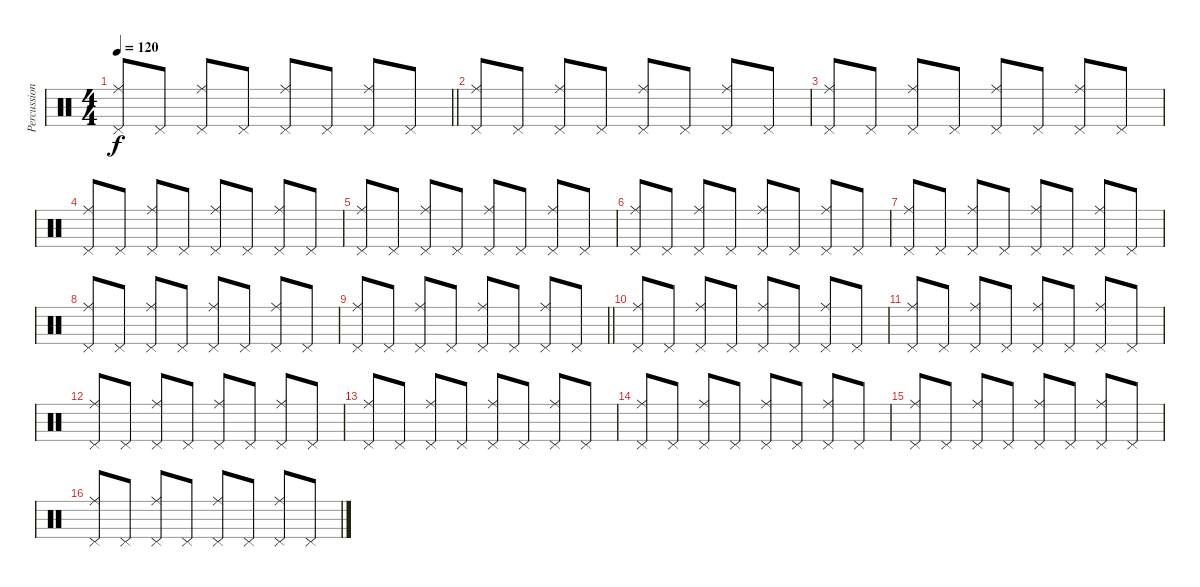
\track ("Percussion" "Percussion") {instrument percussion}
\staff {score}
\articulation defaults
\ts (4 4)
\tempo 120
\clef neutral
\barLineRight lightlight
\ks c
("Pedal Hi-Hat (hit)" "Ride (middle)").8{dy f} "Pedal Hi-Hat (hit)".8 ("Pedal Hi-Hat (hit)" "Ride (middle)").8 "Pedal Hi-Hat (hit)".8 ("Pedal Hi-Hat (hit)" "Ride (middle)").8 "Pedal Hi-Hat (hit)".8 ("Pedal Hi-Hat (hit)" "Ride (middle)").8 "Pedal Hi-Hat (hit)".8 |
("Pedal Hi-Hat (hit)" "Ride (middle)").8 "Pedal Hi-Hat (hit)".8 ("Pedal Hi-Hat (hit)" "Ride (middle)").8 "Pedal Hi-Hat (hit)".8 ("Pedal Hi-Hat (hit)" "Ride (middle)").8 "Pedal Hi-Hat (hit)".8 ("Pedal Hi-Hat (hit)" "Ride (middle)").8 "Pedal Hi-Hat (hit)".8 |
("Pedal Hi-Hat (hit)" "Ride (middle)").8 "Pedal Hi-Hat (hit)".8 ("Pedal Hi-Hat (hit)" "Ride (middle)").8 "Pedal Hi-Hat (hit)".8 ("Pedal Hi-Hat (hit)" "Ride (middle)").8 "Pedal Hi-Hat (hit)".8 ("Pedal Hi-Hat (hit)" "Ride (middle)").8 "Pedal Hi-Hat (hit)".8 |
("Pedal Hi-Hat (hit)" "Ride (middle)").8 "Pedal Hi-Hat (hit)".8 ("Pedal Hi-Hat (hit)" "Ride (middle)").8 "Pedal Hi-Hat (hit)".8 ("Pedal Hi-Hat (hit)" "Ride (middle)").8 "Pedal Hi-Hat (hit)".8 ("Pedal Hi-Hat (hit)" "Ride (middle)").8 "Pedal Hi-Hat (hit)".8 |
("Pedal Hi-Hat (hit)" "Ride (middle)").8 "Pedal Hi-Hat (hit)".8 ("Pedal Hi-Hat (hit)" "Ride (middle)").8 "Pedal Hi-Hat (hit)".8 ("Pedal Hi-Hat (hit)" "Ride (middle)").8 "Pedal Hi-Hat (hit)".8 ("Pedal Hi-Hat (hit)" "Ride (middle)").8 "Pedal Hi-Hat (hit)".8 |
("Pedal Hi-Hat (hit)" "Ride (middle)").8 "Pedal Hi-Hat (hit)".8 ("Pedal Hi-Hat (hit)" "Ride (middle)").8 "Pedal Hi-Hat (hit)".8 ("Pedal Hi-Hat (hit)" "Ride (middle)").8 "Pedal Hi-Hat (hit)".8 ("Pedal Hi-Hat (hit)" "Ride (middle)").8 "Pedal Hi-Hat (hit)".8 |
("Pedal Hi-Hat (hit)" "Ride (middle)").8 "Pedal Hi-Hat (hit)".8 ("Pedal Hi-Hat (hit)" "Ride (middle)").8 "Pedal Hi-Hat (hit)".8 ("Pedal Hi-Hat (hit)" "Ride (middle)").8 "Pedal Hi-Hat (hit)".8 ("Pedal Hi-Hat (hit)" "Ride (middle)").8 "Pedal Hi-Hat (hit)".8 |
("Pedal Hi-Hat (hit)" "Ride (middle)").8 "Pedal Hi-Hat (hit)".8 ("Pedal Hi-Hat (hit)" "Ride (middle)").8 "Pedal Hi-Hat (hit)".8 ("Pedal Hi-Hat (hit)" "Ride (middle)").8 "Pedal Hi-Hat (hit)".8 ("Pedal Hi-Hat (hit)" "Ride (middle)").8 "Pedal Hi-Hat (hit)".8 |
\barLineRight lightlight
("Pedal Hi-Hat (hit)" "Ride (middle)").8 "Pedal Hi-Hat (hit)".8 ("Pedal Hi-Hat (hit)" "Ride (middle)").8 "Pedal Hi-Hat (hit)".8 ("Pedal Hi-Hat (hit)" "Ride (middle)").8 "Pedal Hi-Hat (hit)".8 ("Pedal Hi-Hat (hit)" "Ride (middle)").8 "Pedal Hi-Hat (hit)".8 |
("Pedal Hi-Hat (hit)" "Ride (middle)").8 "Pedal Hi-Hat (hit)".8 ("Pedal Hi-Hat (hit)" "Ride (middle)").8 "Pedal Hi-Hat (hit)".8 ("Pedal Hi-Hat (hit)" "Ride (middle)").8 "Pedal Hi-Hat (hit)".8 ("Pedal Hi-Hat (hit)" "Ride (middle)").8 "Pedal Hi-Hat (hit)".8 |
("Pedal Hi-Hat (hit)" "Ride (middle)").8 "Pedal Hi-Hat (hit)".8 ("Pedal Hi-Hat (hit)" "Ride (middle)").8 "Pedal Hi-Hat (hit)".8 ("Pedal Hi-Hat (hit)" "Ride (middle)").8 "Pedal Hi-Hat (hit)".8 ("Pedal Hi-Hat (hit)" "Ride (middle)").8 "Pedal Hi-Hat (hit)".8 |
("Pedal Hi-Hat (hit)" "Ride (middle)").8 "Pedal Hi-Hat (hit)".8 ("Pedal Hi-Hat (hit)" "Ride (middle)").8 "Pedal Hi-Hat (hit)".8 ("Pedal Hi-Hat (hit)" "Ride (middle)").8 "Pedal Hi-Hat (hit)".8 ("Pedal Hi-Hat (hit)" "Ride (middle)").8 "Pedal Hi-Hat (hit)".8 |
("Pedal Hi-Hat (hit)" "Ride (middle)").8 "Pedal Hi-Hat (hit)".8 ("Pedal Hi-Hat (hit)" "Ride (middle)").8 "Pedal Hi-Hat (hit)".8 ("Pedal Hi-Hat (hit)" "Ride (middle)").8 "Pedal Hi-Hat (hit)".8 ("Pedal Hi-Hat (hit)" "Ride (middle)").8 "Pedal Hi-Hat (hit)".8 |
("Pedal Hi-Hat (hit)" "Ride (middle)").8 "Pedal Hi-Hat (hit)".8 ("Pedal Hi-Hat (hit)" "Ride (middle)").8 "Pedal Hi-Hat (hit)".8 ("Pedal Hi-Hat (hit)" "Ride (middle)").8 "Pedal Hi-Hat (hit)".8 ("Pedal Hi-Hat (hit)" "Ride (middle)").8 "Pedal Hi-Hat (hit)".8 |
("Pedal Hi-Hat (hit)" "Ride (middle)").8 "Pedal Hi-Hat (hit)".8 ("Pedal Hi-Hat (hit)" "Ride (middle)").8 "Pedal Hi-Hat (hit)".8 ("Pedal Hi-Hat (hit)" "Ride (middle)").8 "Pedal Hi-Hat (hit)".8 ("Pedal Hi-Hat (hit)" "Ride (middle)").8 "Pedal Hi-Hat (hit)".8 |
("Pedal Hi-Hat (hit)" "Ride (middle)").8 "Pedal Hi-Hat (hit)".8 ("Pedal Hi-Hat (hit)" "Ride (middle)").8 "Pedal Hi-Hat (hit)".8 ("Pedal Hi-Hat (hit)" "Ride (middle)").8 "Pedal Hi-Hat (hit)".8 ("Pedal Hi-Hat (hit)" "Ride (middle)").8 "Pedal Hi-Hat (hit)".8
